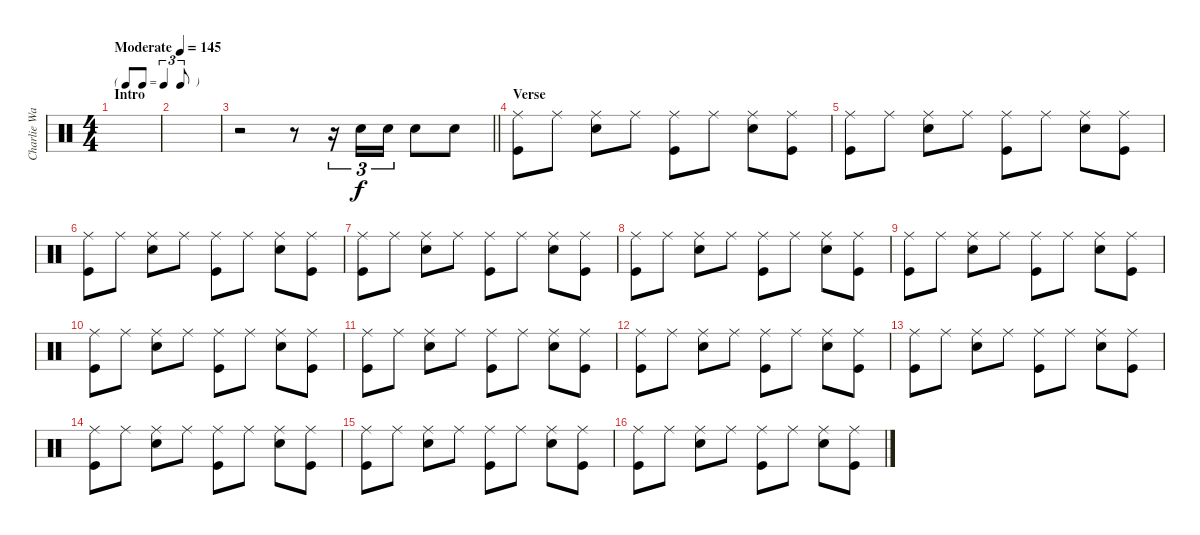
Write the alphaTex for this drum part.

\track ("Charlie Watts" "Charlie Wa") {instrument percussion}
\staff {score}
\articulation defaults
\ts (4 4)
\tf triplet8th
\section ("" "Intro")
\tempo (145 "Moderate")
\clef neutral
\ks c
|
|
\barLineRight lightlight
r.2 r.8 r.16{tu (3 2)} "Snare (hit) 2".16{tu (3 2)} "Snare (hit) 2".16{tu (3 2)} "Snare (hit) 2".8 "Snare (hit) 2".8 |
\section ("" "Verse")
("Ride (middle)" "Kick (hit)").8 "Ride (middle)".8 ("Ride (middle)" "Snare (hit) 2").8 "Ride (middle)".8 ("Ride (middle)" "Kick (hit)").8 "Ride (middle)".8 ("Ride (middle)" "Snare (hit) 2").8 ("Ride (middle)" "Kick (hit)").8 |
("Ride (middle)" "Kick (hit)").8 "Ride (middle)".8 ("Ride (middle)" "Snare (hit) 2").8 "Ride (middle)".8 ("Ride (middle)" "Kick (hit)").8 "Ride (middle)".8 ("Ride (middle)" "Snare (hit) 2").8 ("Ride (middle)" "Kick (hit)").8 |
("Ride (middle)" "Kick (hit)").8 "Ride (middle)".8 ("Ride (middle)" "Snare (hit) 2").8 "Ride (middle)".8 ("Ride (middle)" "Kick (hit)").8 "Ride (middle)".8 ("Ride (middle)" "Snare (hit) 2").8 ("Ride (middle)" "Kick (hit)").8 |
("Ride (middle)" "Kick (hit)").8 "Ride (middle)".8 ("Ride (middle)" "Snare (hit) 2").8 "Ride (middle)".8 ("Ride (middle)" "Kick (hit)").8 "Ride (middle)".8 ("Ride (middle)" "Snare (hit) 2").8 ("Ride (middle)" "Kick (hit)").8 |
("Ride (middle)" "Kick (hit)").8 "Ride (middle)".8 ("Ride (middle)" "Snare (hit) 2").8 "Ride (middle)".8 ("Ride (middle)" "Kick (hit)").8 "Ride (middle)".8 ("Ride (middle)" "Snare (hit) 2").8 ("Ride (middle)" "Kick (hit)").8 |
("Ride (middle)" "Kick (hit)").8 "Ride (middle)".8 ("Ride (middle)" "Snare (hit) 2").8 "Ride (middle)".8 ("Ride (middle)" "Kick (hit)").8 "Ride (middle)".8 ("Ride (middle)" "Snare (hit) 2").8 ("Ride (middle)" "Kick (hit)").8 |
("Ride (middle)" "Kick (hit)").8 "Ride (middle)".8 ("Ride (middle)" "Snare (hit) 2").8 "Ride (middle)".8 ("Ride (middle)" "Kick (hit)").8 "Ride (middle)".8 ("Ride (middle)" "Snare (hit) 2").8 ("Ride (middle)" "Kick (hit)").8 |
("Ride (middle)" "Kick (hit)").8 "Ride (middle)".8 ("Ride (middle)" "Snare (hit) 2").8 "Ride (middle)".8 ("Ride (middle)" "Kick (hit)").8 "Ride (middle)".8 ("Ride (middle)" "Snare (hit) 2").8 ("Ride (middle)" "Kick (hit)").8 |
("Ride (middle)" "Kick (hit)").8 "Ride (middle)".8 ("Ride (middle)" "Snare (hit) 2").8 "Ride (middle)".8 ("Ride (middle)" "Kick (hit)").8 "Ride (middle)".8 ("Ride (middle)" "Snare (hit) 2").8 ("Ride (middle)" "Kick (hit)").8 |
("Ride (middle)" "Kick (hit)").8 "Ride (middle)".8 ("Ride (middle)" "Snare (hit) 2").8 "Ride (middle)".8 ("Ride (middle)" "Kick (hit)").8 "Ride (middle)".8 ("Ride (middle)" "Snare (hit) 2").8 ("Ride (middle)" "Kick (hit)").8 |
("Ride (middle)" "Kick (hit)").8 "Ride (middle)".8 ("Ride (middle)" "Snare (hit) 2").8 "Ride (middle)".8 ("Ride (middle)" "Kick (hit)").8 "Ride (middle)".8 ("Ride (middle)" "Snare (hit) 2").8 ("Ride (middle)" "Kick (hit)").8 |
("Ride (middle)" "Kick (hit)").8 "Ride (middle)".8 ("Ride (middle)" "Snare (hit) 2").8 "Ride (middle)".8 ("Ride (middle)" "Kick (hit)").8 "Ride (middle)".8 ("Ride (middle)" "Snare (hit) 2").8 ("Ride (middle)" "Kick (hit)").8 |
("Ride (middle)" "Kick (hit)").8 "Ride (middle)".8 ("Ride (middle)" "Snare (hit) 2").8 "Ride (middle)".8 ("Ride (middle)" "Kick (hit)").8 "Ride (middle)".8 ("Ride (middle)" "Snare (hit) 2").8 ("Ride (middle)" "Kick (hit)").8
